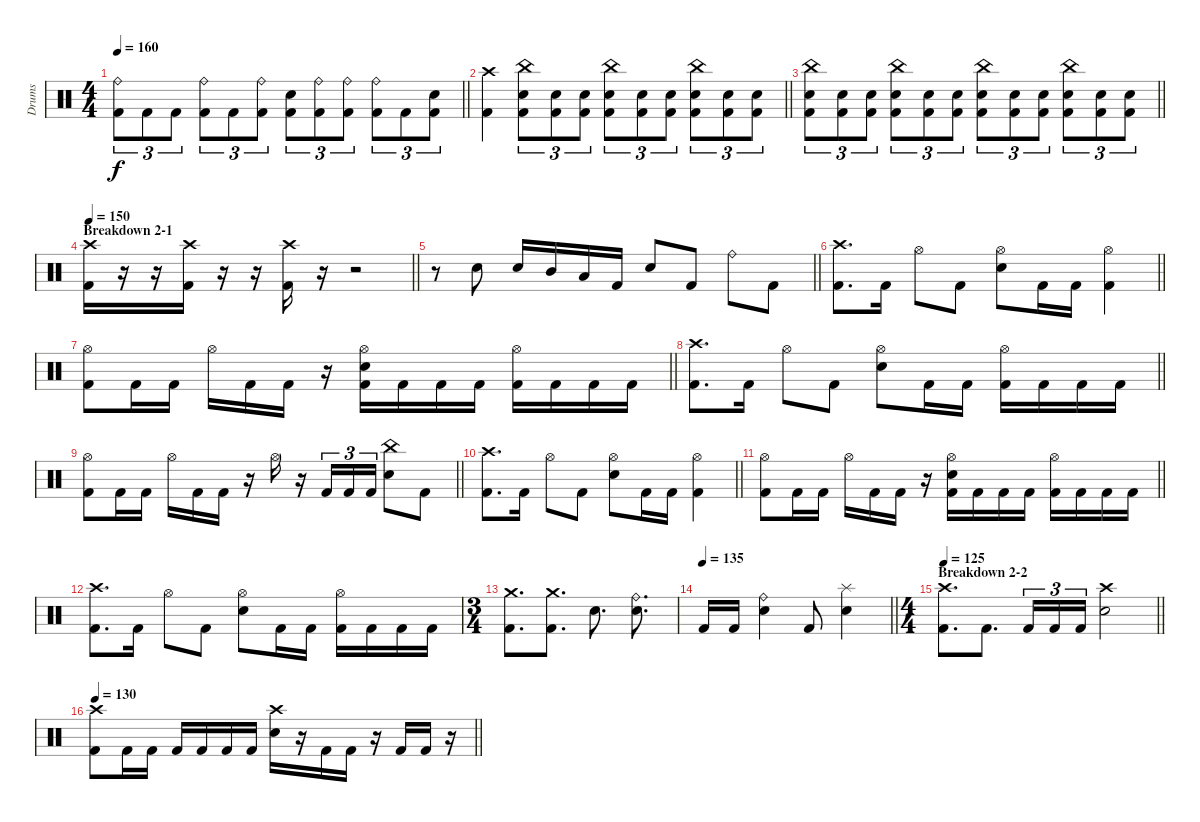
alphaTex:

\track ("Drums" "Drums") {instrument percussion}
\staff {score}
\articulation defaults
\ts (4 4)
\tempo 160
\clef neutral
\barLineRight lightlight
\ks c
("Ride (bell)" "Kick (hit) 2").8{tu (3 2) dy f} "Kick (hit) 2".8{tu (3 2)} "Kick (hit) 2".8{tu (3 2)} ("Ride (bell)" "Kick (hit) 2").8{tu (3 2)} "Kick (hit) 2".8{tu (3 2)} ("Ride (bell)" "Kick (hit) 2").8{tu (3 2)} ("Electric Snare (hit)" "Kick (hit) 2").8{tu (3 2)} ("Ride (bell)" "Kick (hit) 2").8{tu (3 2)} ("Ride (bell)" "Kick (hit) 2").8{tu (3 2)} ("Ride (bell)" "Kick (hit) 2").8{tu (3 2)} "Kick (hit) 2".8{tu (3 2)} ("Electric Snare (hit)" "Kick (hit) 2").8{tu (3 2)} |
\barLineRight lightlight
("Crash high (hit)" "Kick (hit) 2").4 ("China (hit)" "Electric Snare (hit)" "Kick (hit) 2").8{tu (3 2)} ("Electric Snare (hit)" "Kick (hit) 2").8{tu (3 2)} ("Electric Snare (hit)" "Kick (hit) 2").8{tu (3 2)} ("China (hit)" "Electric Snare (hit)" "Kick (hit) 2").8{tu (3 2)} ("Electric Snare (hit)" "Kick (hit) 2").8{tu (3 2)} ("Electric Snare (hit)" "Kick (hit) 2").8{tu (3 2)} ("China (hit)" "Electric Snare (hit)" "Kick (hit) 2").8{tu (3 2)} ("Electric Snare (hit)" "Kick (hit) 2").8{tu (3 2)} ("Electric Snare (hit)" "Kick (hit) 2").8{tu (3 2)} |
\barLineRight lightlight
("China (hit)" "Electric Snare (hit)" "Kick (hit) 2").8{tu (3 2)} ("Electric Snare (hit)" "Kick (hit) 2").8{tu (3 2)} ("Electric Snare (hit)" "Kick (hit) 2").8{tu (3 2)} ("China (hit)" "Electric Snare (hit)" "Kick (hit) 2").8{tu (3 2)} ("Electric Snare (hit)" "Kick (hit) 2").8{tu (3 2)} ("Electric Snare (hit)" "Kick (hit) 2").8{tu (3 2)} ("China (hit)" "Electric Snare (hit)" "Kick (hit) 2").8{tu (3 2)} ("Electric Snare (hit)" "Kick (hit) 2").8{tu (3 2)} ("Electric Snare (hit)" "Kick (hit) 2").8{tu (3 2)} ("China (hit)" "Electric Snare (hit)" "Kick (hit) 2").8{tu (3 2)} ("Electric Snare (hit)" "Kick (hit) 2").8{tu (3 2)} ("Electric Snare (hit)" "Kick (hit) 2").8{tu (3 2)} |
\section ("" "Breakdown 2-1")
\tempo 150
\barLineRight lightlight
("Crash high (hit)" "Kick (hit) 2").16 r.16 r.16 ("Crash high (hit)" "Kick (hit) 2").16 r.16 r.16 ("Crash high (hit)" "Kick (hit) 2").16 r.16 r.2 |
\barLineRight lightlight
r.8 "Electric Snare (hit)".8 "Electric Snare (hit)".16 "Mid Tom (hit)".16 "Low Tom (hit)".16 "Kick (hit) 2".16 "Electric Snare (hit)".8 "Kick (hit) 2".8 "Ride (bell)".8 "Kick (hit) 2".8 |
\barLineRight lightlight
("Crash high (hit)" "Kick (hit) 2").8{d} "Kick (hit) 2".16 "Hi-Hat (open)".8 "Kick (hit) 2".8 ("Hi-Hat (open)" "Electric Snare (hit)").8 "Kick (hit) 2".16 "Kick (hit) 2".16 ("Hi-Hat (open)" "Kick (hit) 2").4 |
\barLineRight lightlight
("Hi-Hat (open)" "Kick (hit) 2").8 "Kick (hit) 2".16 "Kick (hit) 2".16 "Hi-Hat (open)".16 "Kick (hit) 2".16 "Kick (hit) 2".16 r.16 ("Hi-Hat (open)" "Electric Snare (hit)" "Kick (hit) 2").16 "Kick (hit) 2".16 "Kick (hit) 2".16 "Kick (hit) 2".16 ("Hi-Hat (open)" "Kick (hit) 2").16 "Kick (hit) 2".16 "Kick (hit) 2".16 "Kick (hit) 2".16 |
\barLineRight lightlight
("Crash high (hit)" "Kick (hit) 2").8{d} "Kick (hit) 2".16 "Hi-Hat (open)".8 "Kick (hit) 2".8 ("Hi-Hat (open)" "Electric Snare (hit)").8 "Kick (hit) 2".16 "Kick (hit) 2".16 ("Hi-Hat (open)" "Kick (hit) 2").16 "Kick (hit) 2".16 "Kick (hit) 2".16 "Kick (hit) 2".16 |
\barLineRight lightlight
("Hi-Hat (open)" "Kick (hit) 2").8 "Kick (hit) 2".16 "Kick (hit) 2".16 "Hi-Hat (open)".16 "Kick (hit) 2".16 "Kick (hit) 2".16 r.16 "Hi-Hat (open)".16 r.16 "Kick (hit) 2".16{tu (3 2)} "Kick (hit) 2".16{tu (3 2)} "Kick (hit) 2".16{tu (3 2)} ("China (hit)" "Electric Snare (hit)").8 "Kick (hit) 2".8 |
\barLineRight lightlight
("Crash high (hit)" "Kick (hit) 2").8{d} "Kick (hit) 2".16 "Hi-Hat (open)".8 "Kick (hit) 2".8 ("Hi-Hat (open)" "Electric Snare (hit)").8 "Kick (hit) 2".16 "Kick (hit) 2".16 ("Hi-Hat (open)" "Kick (hit) 2").4 |
\barLineRight lightlight
("Hi-Hat (open)" "Kick (hit) 2").8 "Kick (hit) 2".16 "Kick (hit) 2".16 "Hi-Hat (open)".16 "Kick (hit) 2".16 "Kick (hit) 2".16 r.16 ("Hi-Hat (open)" "Electric Snare (hit)" "Kick (hit) 2").16 "Kick (hit) 2".16 "Kick (hit) 2".16 "Kick (hit) 2".16 ("Hi-Hat (open)" "Kick (hit) 2").16 "Kick (hit) 2".16 "Kick (hit) 2".16 "Kick (hit) 2".16 |
("Crash high (hit)" "Kick (hit) 2").8{d} "Kick (hit) 2".16 "Hi-Hat (open)".8 "Kick (hit) 2".8 ("Hi-Hat (open)" "Electric Snare (hit)").8 "Kick (hit) 2".16 "Kick (hit) 2".16 ("Hi-Hat (open)" "Kick (hit) 2").16 "Kick (hit) 2".16 "Kick (hit) 2".16 "Kick (hit) 2".16 |
\ts (3 4)
("Crash medium (hit)" "Kick (hit) 2").8{d} ("Crash medium (hit)" "Kick (hit) 2").8{d} "Electric Snare (hit)".8{d} ("Ride (bell)" "Electric Snare (hit)").8{d} |
\tempo 135
\barLineRight lightlight "Kick (hit) 2".16 "Kick (hit) 2".16
("Ride (bell)" "Electric Snare (hit)").4 "Kick (hit) 2".8 ("Splash (hit)" "Electric Snare (hit)").4 |
\ts (4 4)
\section ("" "Breakdown 2-2")
\tempo 125
\barLineRight lightlight
("Crash high (hit)" "Kick (hit) 2").8{d} "Kick (hit) 2".8{d} "Kick (hit) 2".16{tu (3 2)} "Kick (hit) 2".16{tu (3 2)} "Kick (hit) 2".16{tu (3 2)} ("Crash high (hit)" "Electric Snare (hit)").2 |
\tempo 130
\barLineRight lightlight
("Crash high (hit)" "Kick (hit) 2").8 "Kick (hit) 2".16 "Kick (hit) 2".16 "Kick (hit) 2".16 "Kick (hit) 2".16 "Kick (hit) 2".16 "Kick (hit) 2".16 ("Crash high (hit)" "Electric Snare (hit)").16 r.16 "Kick (hit) 2".16 "Kick (hit) 2".16 r.16 "Kick (hit) 2".16 "Kick (hit) 2".16 r.16
